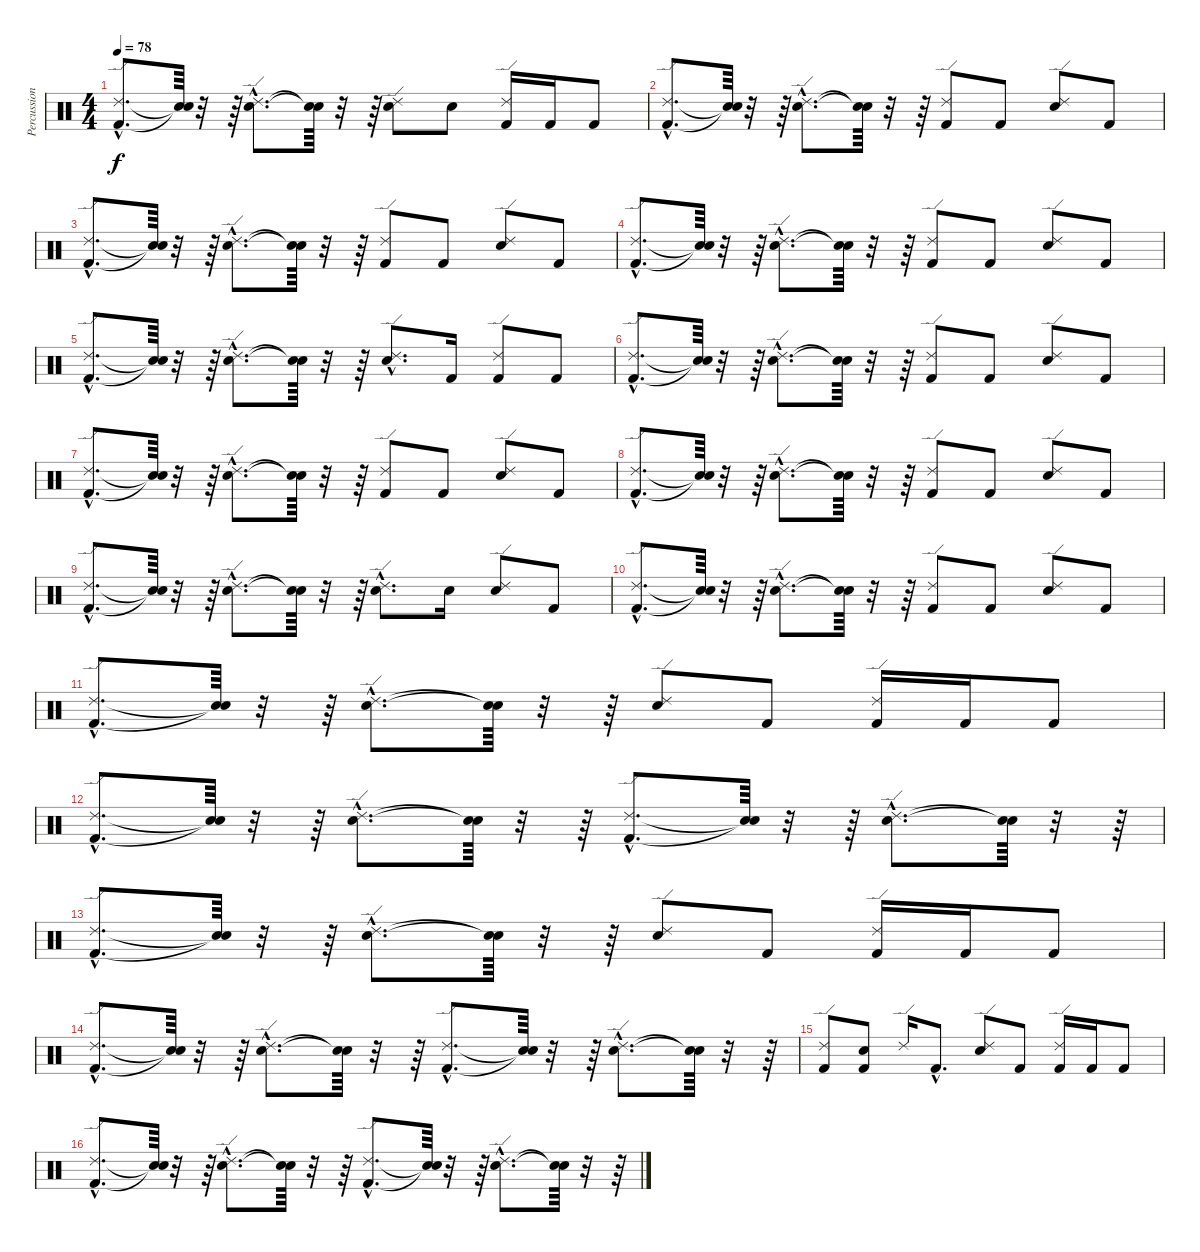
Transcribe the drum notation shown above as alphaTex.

\track ("Percussion" "Percussion") {instrument percussion}
\staff {score}
\articulation defaults
\ts (4 4)
\tempo 78
\clef neutral
\ks c
("Kick (hit) 2"{hac} "Ride (edge) 2"{hac}).8{d dy f} ("Snare (hit)"{t} "Snare (hit)"{t}).64 r.32 r.64 ("Snare (hit) 2"{hac} "Ride (edge) 2"{hac}).8{d} ("Snare (hit)"{t} "Snare (hit)"{t}).64 r.32 r.64 ("Snare (hit) 2" "Ride (edge) 2").8 "Snare (hit) 2".8 ("Kick (hit) 2" "Ride (edge) 2").16 "Kick (hit) 2".16 "Kick (hit) 2".8 |
("Kick (hit) 2"{hac} "Ride (edge) 2"{hac}).8{d} ("Snare (hit)"{t} "Snare (hit)"{t}).64 r.32 r.64 ("Snare (hit) 2"{hac} "Ride (edge) 2"{hac}).8{d} ("Snare (hit)"{t} "Snare (hit)"{t}).64 r.32 r.64 ("Kick (hit) 2" "Ride (edge) 2").8 "Kick (hit) 2".8 ("Snare (hit) 2" "Ride (edge) 2").8 "Kick (hit) 2".8 |
("Kick (hit) 2"{hac} "Ride (edge) 2"{hac}).8{d} ("Snare (hit)"{t} "Snare (hit)"{t}).64 r.32 r.64 ("Snare (hit) 2"{hac} "Ride (edge) 2"{hac}).8{d} ("Snare (hit)"{t} "Snare (hit)"{t}).64 r.32 r.64 ("Kick (hit) 2" "Ride (edge) 2").8 "Kick (hit) 2".8 ("Snare (hit) 2" "Ride (edge) 2").8 "Kick (hit) 2".8 |
("Kick (hit) 2"{hac} "Ride (edge) 2"{hac}).8{d} ("Snare (hit)"{t} "Snare (hit)"{t}).64 r.32 r.64 ("Snare (hit) 2"{hac} "Ride (edge) 2"{hac}).8{d} ("Snare (hit)"{t} "Snare (hit)"{t}).64 r.32 r.64 ("Kick (hit) 2" "Ride (edge) 2").8 "Kick (hit) 2".8 ("Snare (hit) 2" "Ride (edge) 2").8 "Kick (hit) 2".8 |
("Kick (hit) 2"{hac} "Ride (edge) 2"{hac}).8{d} ("Snare (hit)"{t} "Snare (hit)"{t}).64 r.32 r.64 ("Snare (hit) 2"{hac} "Ride (edge) 2"{hac}).8{d} ("Snare (hit)"{t} "Snare (hit)"{t}).64 r.32 r.64 ("Snare (hit) 2"{hac} "Ride (edge) 2"{hac}).8{d} "Kick (hit) 2".16 ("Kick (hit) 2" "Ride (edge) 2").8 "Kick (hit) 2".8 |
("Kick (hit) 2"{hac} "Ride (edge) 2"{hac}).8{d} ("Snare (hit)"{t} "Snare (hit)"{t}).64 r.32 r.64 ("Snare (hit) 2"{hac} "Ride (edge) 2"{hac}).8{d} ("Snare (hit)"{t} "Snare (hit)"{t}).64 r.32 r.64 ("Kick (hit) 2" "Ride (edge) 2").8 "Kick (hit) 2".8 ("Snare (hit) 2" "Ride (edge) 2").8 "Kick (hit) 2".8 |
("Kick (hit) 2"{hac} "Ride (edge) 2"{hac}).8{d} ("Snare (hit)"{t} "Snare (hit)"{t}).64 r.32 r.64 ("Snare (hit) 2"{hac} "Ride (edge) 2"{hac}).8{d} ("Snare (hit)"{t} "Snare (hit)"{t}).64 r.32 r.64 ("Kick (hit) 2" "Ride (edge) 2").8 "Kick (hit) 2".8 ("Snare (hit) 2" "Ride (edge) 2").8 "Kick (hit) 2".8 |
("Kick (hit) 2"{hac} "Ride (edge) 2"{hac}).8{d} ("Snare (hit)"{t} "Snare (hit)"{t}).64 r.32 r.64 ("Snare (hit) 2"{hac} "Ride (edge) 2"{hac}).8{d} ("Snare (hit)"{t} "Snare (hit)"{t}).64 r.32 r.64 ("Kick (hit) 2" "Ride (edge) 2").8 "Kick (hit) 2".8 ("Snare (hit) 2" "Ride (edge) 2").8 "Kick (hit) 2".8 |
("Kick (hit) 2"{hac} "Ride (edge) 2"{hac}).8{d} ("Snare (hit)"{t} "Snare (hit)"{t}).64 r.32 r.64 ("Snare (hit) 2"{hac} "Ride (edge) 2"{hac}).8{d} ("Snare (hit)"{t} "Snare (hit)"{t}).64 r.32 r.64 ("Snare (hit) 2"{hac} "Ride (edge) 2"{hac}).8{d} "Snare (hit) 2".16 ("Snare (hit) 2" "Ride (edge) 2").8 "Kick (hit) 2".8 |
("Kick (hit) 2"{hac} "Ride (edge) 2"{hac}).8{d} ("Snare (hit)"{t} "Snare (hit)"{t}).64 r.32 r.64 ("Snare (hit) 2"{hac} "Ride (edge) 2"{hac}).8{d} ("Snare (hit)"{t} "Snare (hit)"{t}).64 r.32 r.64 ("Kick (hit) 2" "Ride (edge) 2").8 "Kick (hit) 2".8 ("Snare (hit) 2" "Ride (edge) 2").8 "Kick (hit) 2".8 |
("Kick (hit) 2"{hac} "Ride (edge) 2"{hac}).8{d} ("Snare (hit)"{t} "Snare (hit)"{t}).64 r.32 r.64 ("Snare (hit) 2"{hac} "Ride (edge) 2"{hac}).8{d} ("Snare (hit)"{t} "Snare (hit)"{t}).64 r.32 r.64 ("Snare (hit) 2" "Ride (edge) 2").8 "Kick (hit) 2".8 ("Kick (hit) 2" "Ride (edge) 2").16 "Kick (hit) 2".16 "Kick (hit) 2".8 |
("Kick (hit) 2"{hac} "Ride (edge) 2"{hac}).8{d} ("Snare (hit)"{t} "Snare (hit)"{t}).64 r.32 r.64 ("Snare (hit) 2"{hac} "Ride (edge) 2"{hac}).8{d} ("Snare (hit)"{t} "Snare (hit)"{t}).64 r.32 r.64 ("Kick (hit) 2"{hac} "Ride (edge) 2"{hac}).8{d} ("Snare (hit)"{t} "Snare (hit)"{t}).64 r.32 r.64 ("Snare (hit) 2"{hac} "Ride (edge) 2"{hac}).8{d} ("Snare (hit)"{t} "Snare (hit)"{t}).64 r.32 r.64 |
("Kick (hit) 2"{hac} "Ride (edge) 2"{hac}).8{d} ("Snare (hit)"{t} "Snare (hit)"{t}).64 r.32 r.64 ("Snare (hit) 2"{hac} "Ride (edge) 2"{hac}).8{d} ("Snare (hit)"{t} "Snare (hit)"{t}).64 r.32 r.64 ("Snare (hit) 2" "Ride (edge) 2").8 "Kick (hit) 2".8 ("Kick (hit) 2" "Ride (edge) 2").16 "Kick (hit) 2".16 "Kick (hit) 2".8 |
("Kick (hit) 2"{hac} "Ride (edge) 2"{hac}).8{d} ("Snare (hit)"{t} "Snare (hit)"{t}).64 r.32 r.64 ("Snare (hit) 2"{hac} "Ride (edge) 2"{hac}).8{d} ("Snare (hit)"{t} "Snare (hit)"{t}).64 r.32 r.64 ("Kick (hit) 2"{hac} "Ride (edge) 2"{hac}).8{d} ("Snare (hit)"{t} "Snare (hit)"{t}).64 r.32 r.64 ("Snare (hit) 2"{hac} "Ride (edge) 2"{hac}).8{d} ("Snare (hit)"{t} "Snare (hit)"{t}).64 r.32 r.64 |
("Kick (hit) 2" "Ride (edge) 2").8 ("Kick (hit) 2" "Snare (hit) 2").8 "Ride (edge) 2".16 "Kick (hit) 2"{hac}.8{d} ("Snare (hit) 2" "Ride (edge) 2").8 "Kick (hit) 2".8 ("Kick (hit) 2" "Ride (edge) 2").16 "Kick (hit) 2".16 "Kick (hit) 2".8 |
("Kick (hit) 2"{hac} "Ride (edge) 2"{hac}).8{d} ("Snare (hit)"{t} "Snare (hit)"{t}).64 r.32 r.64 ("Snare (hit) 2"{hac} "Ride (edge) 2"{hac}).8{d} ("Snare (hit)"{t} "Snare (hit)"{t}).64 r.32 r.64 ("Kick (hit) 2"{hac} "Ride (edge) 2"{hac}).8{d} ("Snare (hit)"{t} "Snare (hit)"{t}).64 r.32 r.64 ("Snare (hit) 2"{hac} "Ride (edge) 2"{hac}).8{d} ("Snare (hit)"{t} "Snare (hit)"{t}).64 r.32 r.64
